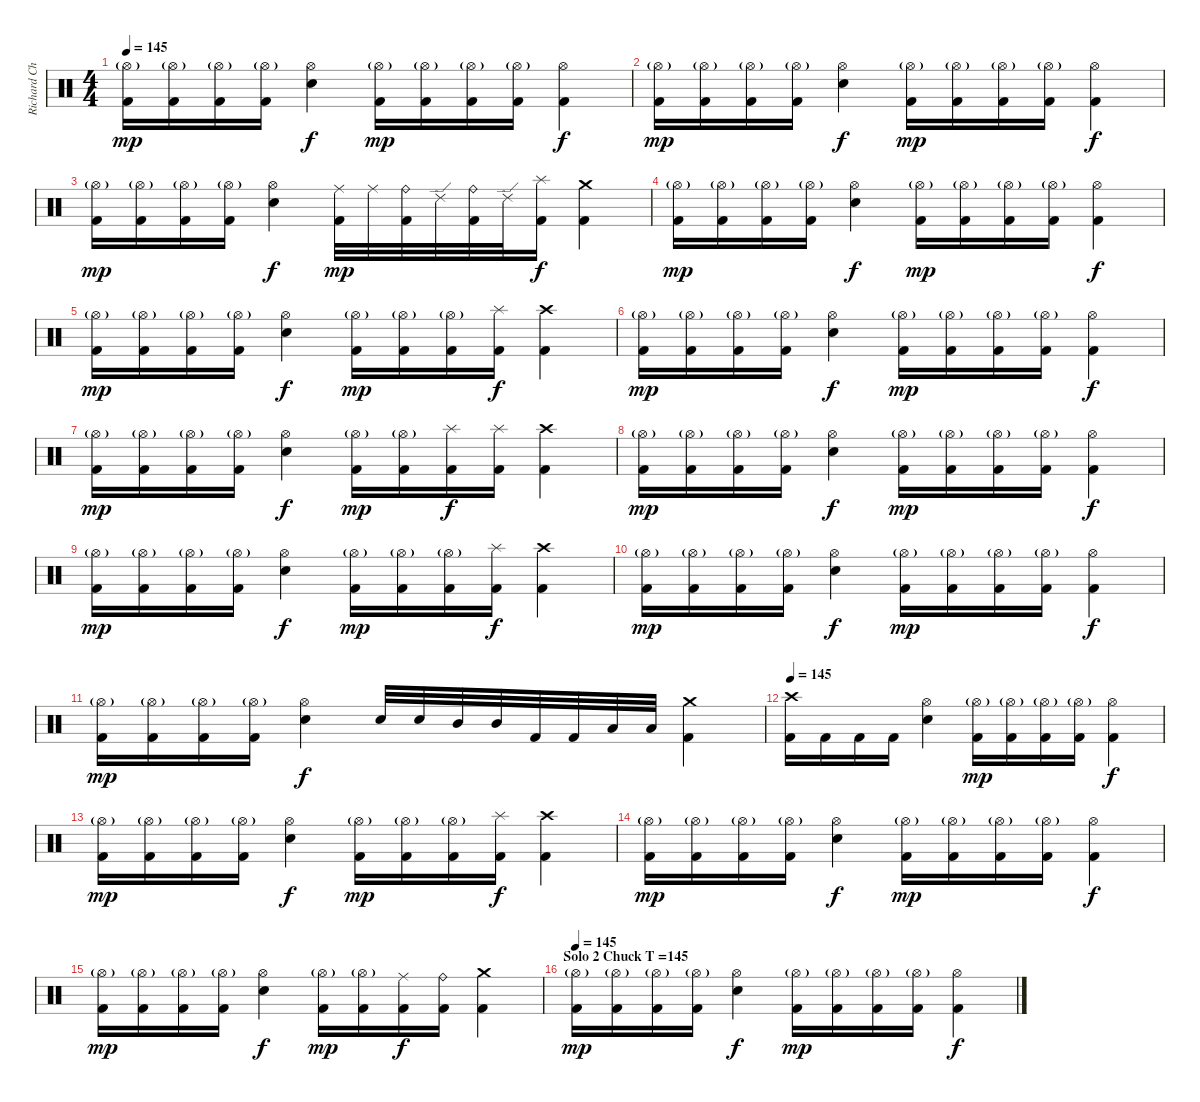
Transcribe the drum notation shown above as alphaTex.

\track ("Richard Christy" "Richard Ch") {instrument percussion}
\staff {score}
\articulation defaults
\ts (4 4)
\tempo 145
\clef neutral
\ks c
("Hi-Hat (open)"{g} "Kick (hit) 2").16{dy mp} ("Hi-Hat (open)"{g} "Kick (hit) 2").16 ("Hi-Hat (open)"{g} "Kick (hit) 2").16 ("Hi-Hat (open)"{g} "Kick (hit) 2").16 ("Hi-Hat (open)" "Electric Snare (hit)").4{dy f} ("Hi-Hat (open)"{g} "Kick (hit) 2").16{dy mp} ("Hi-Hat (open)"{g} "Kick (hit) 2").16 ("Hi-Hat (open)"{g} "Kick (hit) 2").16 ("Hi-Hat (open)"{g} "Kick (hit) 2").16 ("Hi-Hat (open)" "Kick (hit) 2").4{dy f} |
("Hi-Hat (open)"{g} "Kick (hit) 2").16{dy mp} ("Hi-Hat (open)"{g} "Kick (hit) 2").16 ("Hi-Hat (open)"{g} "Kick (hit) 2").16 ("Hi-Hat (open)"{g} "Kick (hit) 2").16 ("Hi-Hat (open)" "Electric Snare (hit)").4{dy f} ("Hi-Hat (open)"{g} "Kick (hit) 2").16{dy mp} ("Hi-Hat (open)"{g} "Kick (hit) 2").16 ("Hi-Hat (open)"{g} "Kick (hit) 2").16 ("Hi-Hat (open)"{g} "Kick (hit) 2").16 ("Hi-Hat (open)" "Kick (hit) 2").4{dy f} |
("Hi-Hat (open)"{g} "Kick (hit) 2").16{dy mp} ("Hi-Hat (open)"{g} "Kick (hit) 2").16 ("Hi-Hat (open)"{g} "Kick (hit) 2").16 ("Hi-Hat (open)"{g} "Kick (hit) 2").16 ("Hi-Hat (open)" "Electric Snare (hit)").4{dy f} ("Ride (middle)" "Kick (hit) 2").32{dy mp} "Ride (middle)".32 ("Ride (bell)" "Kick (hit) 2").32 "Ride (edge) 2".32 ("Ride (bell)" "Kick (hit) 2").32 "Ride (edge) 2".32 ("Splash (hit)" "Kick (hit) 2").16{dy f} ("Crash medium (hit)" "Kick (hit) 2").4 |
("Hi-Hat (open)"{g} "Kick (hit) 2").16{dy mp} ("Hi-Hat (open)"{g} "Kick (hit) 2").16 ("Hi-Hat (open)"{g} "Kick (hit) 2").16 ("Hi-Hat (open)"{g} "Kick (hit) 2").16 ("Hi-Hat (open)" "Electric Snare (hit)").4{dy f} ("Hi-Hat (open)"{g} "Kick (hit) 2").16{dy mp} ("Hi-Hat (open)"{g} "Kick (hit) 2").16 ("Hi-Hat (open)"{g} "Kick (hit) 2").16 ("Hi-Hat (open)"{g} "Kick (hit) 2").16 ("Hi-Hat (open)" "Kick (hit) 2").4{dy f} |
("Hi-Hat (open)"{g} "Kick (hit) 2").16{dy mp} ("Hi-Hat (open)"{g} "Kick (hit) 2").16 ("Hi-Hat (open)"{g} "Kick (hit) 2").16 ("Hi-Hat (open)"{g} "Kick (hit) 2").16 ("Hi-Hat (open)" "Electric Snare (hit)").4{dy f} ("Hi-Hat (open)"{g} "Kick (hit) 2").16{dy mp} ("Hi-Hat (open)"{g} "Kick (hit) 2").16 ("Hi-Hat (open)"{g} "Kick (hit) 2").16 ("Splash (hit)" "Kick (hit) 2").16{dy f} ("Crash high (hit)" "Kick (hit) 2").4 |
("Hi-Hat (open)"{g} "Kick (hit) 2").16{dy mp} ("Hi-Hat (open)"{g} "Kick (hit) 2").16 ("Hi-Hat (open)"{g} "Kick (hit) 2").16 ("Hi-Hat (open)"{g} "Kick (hit) 2").16 ("Hi-Hat (open)" "Electric Snare (hit)").4{dy f} ("Hi-Hat (open)"{g} "Kick (hit) 2").16{dy mp} ("Hi-Hat (open)"{g} "Kick (hit) 2").16 ("Hi-Hat (open)"{g} "Kick (hit) 2").16 ("Hi-Hat (open)"{g} "Kick (hit) 2").16 ("Hi-Hat (open)" "Kick (hit) 2").4{dy f} |
("Hi-Hat (open)"{g} "Kick (hit) 2").16{dy mp} ("Hi-Hat (open)"{g} "Kick (hit) 2").16 ("Hi-Hat (open)"{g} "Kick (hit) 2").16 ("Hi-Hat (open)"{g} "Kick (hit) 2").16 ("Hi-Hat (open)" "Electric Snare (hit)").4{dy f} ("Hi-Hat (open)"{g} "Kick (hit) 2").16{dy mp} ("Hi-Hat (open)"{g} "Kick (hit) 2").16 ("Splash (hit)" "Kick (hit) 2").16{dy f} ("Splash (hit)" "Kick (hit) 2").16 ("Crash high (hit)" "Kick (hit) 2").4 |
("Hi-Hat (open)"{g} "Kick (hit) 2").16{dy mp} ("Hi-Hat (open)"{g} "Kick (hit) 2").16 ("Hi-Hat (open)"{g} "Kick (hit) 2").16 ("Hi-Hat (open)"{g} "Kick (hit) 2").16 ("Hi-Hat (open)" "Electric Snare (hit)").4{dy f} ("Hi-Hat (open)"{g} "Kick (hit) 2").16{dy mp} ("Hi-Hat (open)"{g} "Kick (hit) 2").16 ("Hi-Hat (open)"{g} "Kick (hit) 2").16 ("Hi-Hat (open)"{g} "Kick (hit) 2").16 ("Hi-Hat (open)" "Kick (hit) 2").4{dy f} |
("Hi-Hat (open)"{g} "Kick (hit) 2").16{dy mp} ("Hi-Hat (open)"{g} "Kick (hit) 2").16 ("Hi-Hat (open)"{g} "Kick (hit) 2").16 ("Hi-Hat (open)"{g} "Kick (hit) 2").16 ("Hi-Hat (open)" "Electric Snare (hit)").4{dy f} ("Hi-Hat (open)"{g} "Kick (hit) 2").16{dy mp} ("Hi-Hat (open)"{g} "Kick (hit) 2").16 ("Hi-Hat (open)"{g} "Kick (hit) 2").16 ("Splash (hit)" "Kick (hit) 2").16{dy f} ("Crash high (hit)" "Kick (hit) 2").4 |
("Hi-Hat (open)"{g} "Kick (hit) 2").16{dy mp} ("Hi-Hat (open)"{g} "Kick (hit) 2").16 ("Hi-Hat (open)"{g} "Kick (hit) 2").16 ("Hi-Hat (open)"{g} "Kick (hit) 2").16 ("Hi-Hat (open)" "Electric Snare (hit)").4{dy f} ("Hi-Hat (open)"{g} "Kick (hit) 2").16{dy mp} ("Hi-Hat (open)"{g} "Kick (hit) 2").16 ("Hi-Hat (open)"{g} "Kick (hit) 2").16 ("Hi-Hat (open)"{g} "Kick (hit) 2").16 ("Hi-Hat (open)" "Kick (hit) 2").4{dy f} |
("Hi-Hat (open)"{g} "Kick (hit) 2").16{dy mp} ("Hi-Hat (open)"{g} "Kick (hit) 2").16 ("Hi-Hat (open)"{g} "Kick (hit) 2").16 ("Hi-Hat (open)"{g} "Kick (hit) 2").16 ("Hi-Hat (open)" "Electric Snare (hit)").4{dy f} "Electric Snare (hit)".32 "Electric Snare (hit)".32 "Mid Tom (hit)".32 "Mid Tom (hit)".32 "Kick (hit) 2".32 "Kick (hit) 2".32 "Low Tom (hit)".32 "Low Tom (hit)".32 ("Crash medium (hit)" "Kick (hit) 2").4 |
\tempo 145
("Crash high (hit)" "Kick (hit) 2").16 "Kick (hit) 2".16 "Kick (hit) 2".16 "Kick (hit) 2".16 ("Hi-Hat (open)" "Electric Snare (hit)").4 ("Hi-Hat (open)"{g} "Kick (hit) 2").16{dy mp} ("Hi-Hat (open)"{g} "Kick (hit) 2").16 ("Hi-Hat (open)"{g} "Kick (hit) 2").16 ("Hi-Hat (open)"{g} "Kick (hit) 2").16 ("Hi-Hat (open)" "Kick (hit) 2").4{dy f} |
("Hi-Hat (open)"{g} "Kick (hit) 2").16{dy mp} ("Hi-Hat (open)"{g} "Kick (hit) 2").16 ("Hi-Hat (open)"{g} "Kick (hit) 2").16 ("Hi-Hat (open)"{g} "Kick (hit) 2").16 ("Hi-Hat (open)" "Electric Snare (hit)").4{dy f} ("Hi-Hat (open)"{g} "Kick (hit) 2").16{dy mp} ("Hi-Hat (open)"{g} "Kick (hit) 2").16 ("Hi-Hat (open)"{g} "Kick (hit) 2").16 ("Splash (hit)" "Kick (hit) 2").16{dy f} ("Crash high (hit)" "Kick (hit) 2").4 |
("Hi-Hat (open)"{g} "Kick (hit) 2").16{dy mp} ("Hi-Hat (open)"{g} "Kick (hit) 2").16 ("Hi-Hat (open)"{g} "Kick (hit) 2").16 ("Hi-Hat (open)"{g} "Kick (hit) 2").16 ("Hi-Hat (open)" "Electric Snare (hit)").4{dy f} ("Hi-Hat (open)"{g} "Kick (hit) 2").16{dy mp} ("Hi-Hat (open)"{g} "Kick (hit) 2").16 ("Hi-Hat (open)"{g} "Kick (hit) 2").16 ("Hi-Hat (open)"{g} "Kick (hit) 2").16 ("Hi-Hat (open)" "Kick (hit) 2").4{dy f} |
("Hi-Hat (open)"{g} "Kick (hit) 2").16{dy mp} ("Hi-Hat (open)"{g} "Kick (hit) 2").16 ("Hi-Hat (open)"{g} "Kick (hit) 2").16 ("Hi-Hat (open)"{g} "Kick (hit) 2").16 ("Hi-Hat (open)" "Electric Snare (hit)").4{dy f} ("Hi-Hat (open)"{g} "Kick (hit) 2").16{dy mp} ("Hi-Hat (open)"{g} "Kick (hit) 2").16 ("Ride (middle)" "Kick (hit) 2").16{dy f} ("Ride (bell)" "Kick (hit) 2").16 ("Crash medium (hit)" "Kick (hit) 2").4 |
\section ("" "Solo 2 Chuck T =145")
\tempo 145
("Hi-Hat (open)"{g} "Kick (hit) 2").16{dy mp} ("Hi-Hat (open)"{g} "Kick (hit) 2").16 ("Hi-Hat (open)"{g} "Kick (hit) 2").16 ("Hi-Hat (open)"{g} "Kick (hit) 2").16 ("Hi-Hat (open)" "Electric Snare (hit)").4{dy f} ("Hi-Hat (open)"{g} "Kick (hit) 2").16{dy mp} ("Hi-Hat (open)"{g} "Kick (hit) 2").16 ("Hi-Hat (open)"{g} "Kick (hit) 2").16 ("Hi-Hat (open)"{g} "Kick (hit) 2").16 ("Hi-Hat (open)" "Kick (hit) 2").4{dy f}
